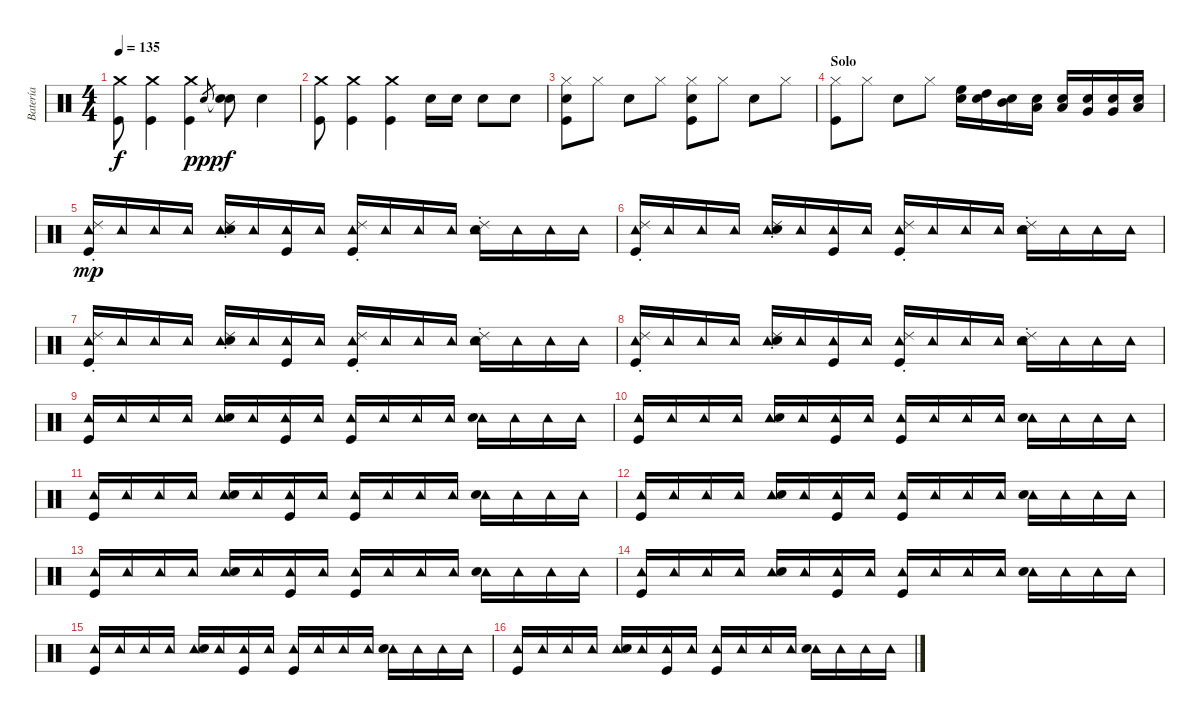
\track ("Batería" "Batería") {instrument percussion}
\staff {score}
\articulation defaults
\ts (4 4)
\tempo 135
\clef neutral
\ks c
("Crash medium (hit)" "Kick (hit)").8{dy f} ("Crash medium (hit)" "Kick (hit)").4 ("Crash medium (hit)" "Kick (hit)").4 "Snare (hit) 2".8{gr dy ppp} ("Snare (hit)"{t} "Snare (hit) 2").8{dy f} "Snare (hit) 2".4 |
("Crash medium (hit)" "Kick (hit)").8 ("Crash medium (hit)" "Kick (hit)").4 ("Crash medium (hit)" "Kick (hit)").4 "Snare (hit) 2".16 "Snare (hit) 2".16 "Snare (hit) 2".8 "Snare (hit) 2".8 |
("Hi-Hat (closed)" "Kick (hit)" "Snare (hit) 2").8 "Hi-Hat (closed)".8 "Snare (hit) 2".8 "Hi-Hat (closed)".8 ("Hi-Hat (closed)" "Kick (hit)" "Snare (hit) 2").8 "Hi-Hat (closed)".8 "Snare (hit) 2".8 "Hi-Hat (closed)".8 |
\section ("" "Solo")
("Hi-Hat (closed)" "Kick (hit)").8 "Hi-Hat (closed)".8 "Snare (hit) 2".8 "Hi-Hat (closed)".8 ("Snare (hit) 2" "High Floor Tom (hit)").16 ("Snare (hit) 2" "High Tom (hit)").16 ("Snare (hit) 2" "Mid Tom (hit)").16 ("Snare (hit) 2" "Low Tom (hit)").16 ("Snare (hit) 2" "Low Tom (hit)").16 ("Snare (hit) 2" "Very Low Tom (hit)").16 ("Snare (hit) 2" "Very Low Tom (hit)").16 ("Snare (hit) 2" "Low Floor Tom (hit)").16 |
("Tambourine (hit)" "Kick (hit)" "Ride (choke) 2").16{dy mp} "Tambourine (hit)".16 "Tambourine (hit)".16 "Tambourine (hit)".16 ("Tambourine (hit)" "Snare (hit) 2" "Ride (choke) 2").16 "Tambourine (hit)".16 ("Tambourine (hit)" "Kick (hit)").16 "Tambourine (hit)".16 ("Tambourine (hit)" "Kick (hit)" "Ride (choke) 2").16 "Tambourine (hit)".16 "Tambourine (hit)".16 "Tambourine (hit)".16 ("Tambourine (hit)" "Snare (hit) 2" "Ride (choke) 2").16 "Tambourine (hit)".16 "Tambourine (hit)".16 "Tambourine (hit)".16 |
("Tambourine (hit)" "Kick (hit)" "Ride (choke) 2").16 "Tambourine (hit)".16 "Tambourine (hit)".16 "Tambourine (hit)".16 ("Tambourine (hit)" "Snare (hit) 2" "Ride (choke) 2").16 "Tambourine (hit)".16 ("Tambourine (hit)" "Kick (hit)").16 "Tambourine (hit)".16 ("Tambourine (hit)" "Kick (hit)" "Ride (choke) 2").16 "Tambourine (hit)".16 "Tambourine (hit)".16 "Tambourine (hit)".16 ("Tambourine (hit)" "Snare (hit) 2" "Ride (choke) 2").16 "Tambourine (hit)".16 "Tambourine (hit)".16 "Tambourine (hit)".16 |
("Tambourine (hit)" "Kick (hit)" "Ride (choke) 2").16 "Tambourine (hit)".16 "Tambourine (hit)".16 "Tambourine (hit)".16 ("Tambourine (hit)" "Snare (hit) 2" "Ride (choke) 2").16 "Tambourine (hit)".16 ("Tambourine (hit)" "Kick (hit)").16 "Tambourine (hit)".16 ("Tambourine (hit)" "Kick (hit)" "Ride (choke) 2").16 "Tambourine (hit)".16 "Tambourine (hit)".16 "Tambourine (hit)".16 ("Tambourine (hit)" "Snare (hit) 2" "Ride (choke) 2").16 "Tambourine (hit)".16 "Tambourine (hit)".16 "Tambourine (hit)".16 |
("Tambourine (hit)" "Kick (hit)" "Ride (choke) 2").16 "Tambourine (hit)".16 "Tambourine (hit)".16 "Tambourine (hit)".16 ("Tambourine (hit)" "Snare (hit) 2" "Ride (choke) 2").16 "Tambourine (hit)".16 ("Tambourine (hit)" "Kick (hit)").16 "Tambourine (hit)".16 ("Tambourine (hit)" "Kick (hit)" "Ride (choke) 2").16 "Tambourine (hit)".16 "Tambourine (hit)".16 "Tambourine (hit)".16 ("Tambourine (hit)" "Snare (hit) 2" "Ride (choke) 2").16 "Tambourine (hit)".16 "Tambourine (hit)".16 "Tambourine (hit)".16 |
("Tambourine (hit)" "Kick (hit)").16 "Tambourine (hit)".16 "Tambourine (hit)".16 "Tambourine (hit)".16 ("Tambourine (hit)" "Snare (hit) 2").16 "Tambourine (hit)".16 ("Tambourine (hit)" "Kick (hit)").16 "Tambourine (hit)".16 ("Tambourine (hit)" "Kick (hit)").16 "Tambourine (hit)".16 "Tambourine (hit)".16 "Tambourine (hit)".16 ("Tambourine (hit)" "Snare (hit) 2").16 "Tambourine (hit)".16 "Tambourine (hit)".16 "Tambourine (hit)".16 |
("Tambourine (hit)" "Kick (hit)").16 "Tambourine (hit)".16 "Tambourine (hit)".16 "Tambourine (hit)".16 ("Tambourine (hit)" "Snare (hit) 2").16 "Tambourine (hit)".16 ("Tambourine (hit)" "Kick (hit)").16 "Tambourine (hit)".16 ("Tambourine (hit)" "Kick (hit)").16 "Tambourine (hit)".16 "Tambourine (hit)".16 "Tambourine (hit)".16 ("Tambourine (hit)" "Snare (hit) 2").16 "Tambourine (hit)".16 "Tambourine (hit)".16 "Tambourine (hit)".16 |
("Tambourine (hit)" "Kick (hit)").16 "Tambourine (hit)".16 "Tambourine (hit)".16 "Tambourine (hit)".16 ("Tambourine (hit)" "Snare (hit) 2").16 "Tambourine (hit)".16 ("Tambourine (hit)" "Kick (hit)").16 "Tambourine (hit)".16 ("Tambourine (hit)" "Kick (hit)").16 "Tambourine (hit)".16 "Tambourine (hit)".16 "Tambourine (hit)".16 ("Tambourine (hit)" "Snare (hit) 2").16 "Tambourine (hit)".16 "Tambourine (hit)".16 "Tambourine (hit)".16 |
("Tambourine (hit)" "Kick (hit)").16 "Tambourine (hit)".16 "Tambourine (hit)".16 "Tambourine (hit)".16 ("Tambourine (hit)" "Snare (hit) 2").16 "Tambourine (hit)".16 ("Tambourine (hit)" "Kick (hit)").16 "Tambourine (hit)".16 ("Tambourine (hit)" "Kick (hit)").16 "Tambourine (hit)".16 "Tambourine (hit)".16 "Tambourine (hit)".16 ("Tambourine (hit)" "Snare (hit) 2").16 "Tambourine (hit)".16 "Tambourine (hit)".16 "Tambourine (hit)".16 |
("Tambourine (hit)" "Kick (hit)").16 "Tambourine (hit)".16 "Tambourine (hit)".16 "Tambourine (hit)".16 ("Tambourine (hit)" "Snare (hit) 2").16 "Tambourine (hit)".16 ("Tambourine (hit)" "Kick (hit)").16 "Tambourine (hit)".16 ("Tambourine (hit)" "Kick (hit)").16 "Tambourine (hit)".16 "Tambourine (hit)".16 "Tambourine (hit)".16 ("Tambourine (hit)" "Snare (hit) 2").16 "Tambourine (hit)".16 "Tambourine (hit)".16 "Tambourine (hit)".16 |
("Tambourine (hit)" "Kick (hit)").16 "Tambourine (hit)".16 "Tambourine (hit)".16 "Tambourine (hit)".16 ("Tambourine (hit)" "Snare (hit) 2").16 "Tambourine (hit)".16 ("Tambourine (hit)" "Kick (hit)").16 "Tambourine (hit)".16 ("Tambourine (hit)" "Kick (hit)").16 "Tambourine (hit)".16 "Tambourine (hit)".16 "Tambourine (hit)".16 ("Tambourine (hit)" "Snare (hit) 2").16 "Tambourine (hit)".16 "Tambourine (hit)".16 "Tambourine (hit)".16 |
("Tambourine (hit)" "Kick (hit)").16 "Tambourine (hit)".16 "Tambourine (hit)".16 "Tambourine (hit)".16 ("Tambourine (hit)" "Snare (hit) 2").16 "Tambourine (hit)".16 ("Tambourine (hit)" "Kick (hit)").16 "Tambourine (hit)".16 ("Tambourine (hit)" "Kick (hit)").16 "Tambourine (hit)".16 "Tambourine (hit)".16 "Tambourine (hit)".16 ("Tambourine (hit)" "Snare (hit) 2").16 "Tambourine (hit)".16 "Tambourine (hit)".16 "Tambourine (hit)".16 |
("Tambourine (hit)" "Kick (hit)").16 "Tambourine (hit)".16 "Tambourine (hit)".16 "Tambourine (hit)".16 ("Tambourine (hit)" "Snare (hit) 2").16 "Tambourine (hit)".16 ("Tambourine (hit)" "Kick (hit)").16 "Tambourine (hit)".16 ("Tambourine (hit)" "Kick (hit)").16 "Tambourine (hit)".16 "Tambourine (hit)".16 "Tambourine (hit)".16 ("Tambourine (hit)" "Snare (hit) 2").16 "Tambourine (hit)".16 "Tambourine (hit)".16 "Tambourine (hit)".16
